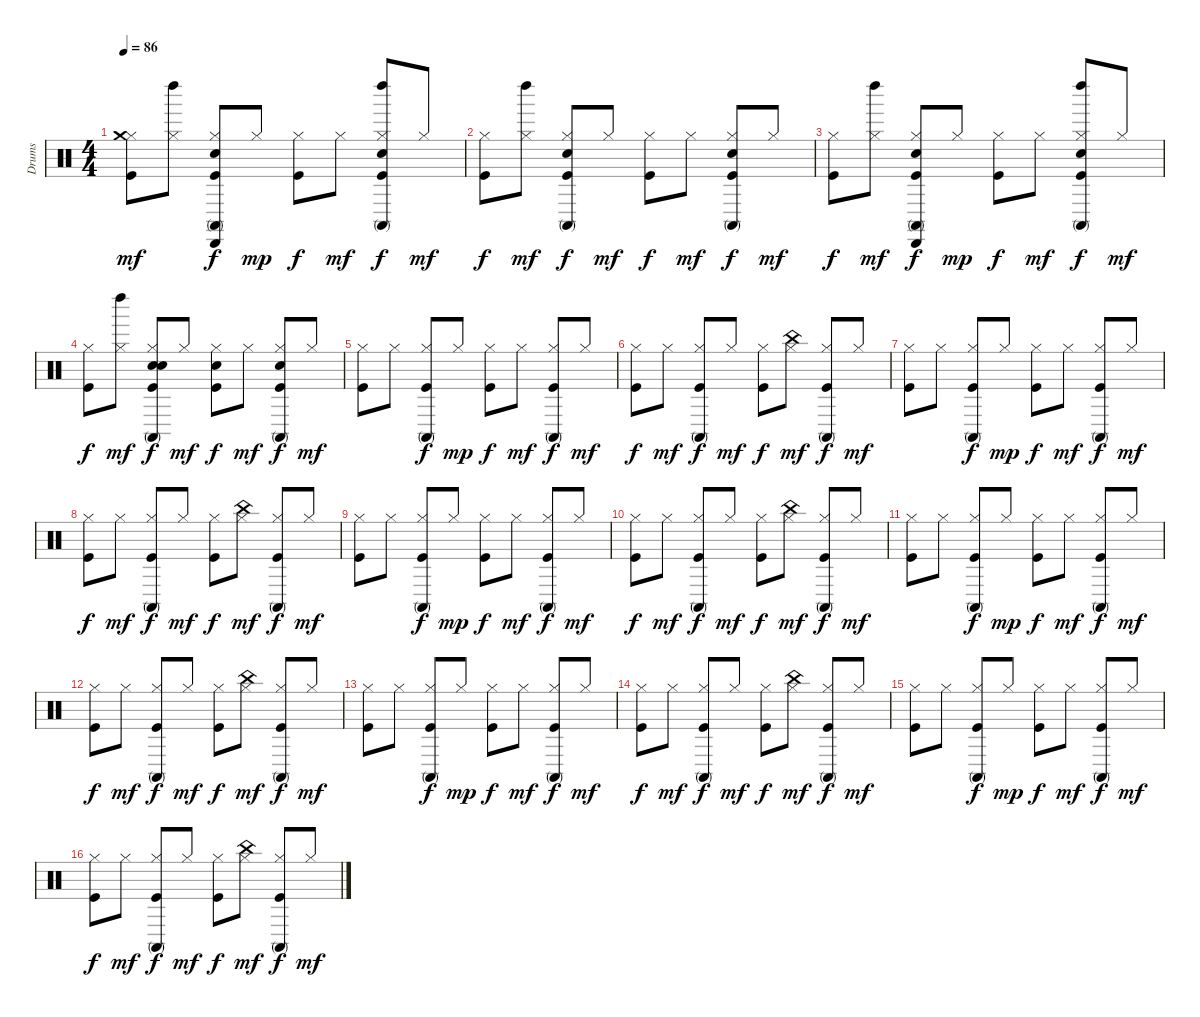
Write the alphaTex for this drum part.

\track ("Drums" "Drums") {instrument percussion}
\staff {score}
\articulation defaults
\ts (4 4)
\tempo 86
\clef neutral
\ks c
("Hi-Hat (closed)" "Crash medium (hit)" "Kick (hit)").8{dy mf} ("Hi-Hat (closed)" "Left Maraca (hit)").8 ("Cabasa (hit)" "Snare (hit) 2" "Conga high (mute)" "Hi-Hat (closed)" "Kick (hit)").8{dy f} "Hi-Hat (closed)".8{dy mp} ("Hi-Hat (closed)" "Kick (hit)").8{dy f} "Hi-Hat (closed)".8{dy mf} ("Left Maraca (hit)" "Snare (hit) 2" "Conga high (mute)" "Hi-Hat (closed)" "Kick (hit)").8{dy f} "Hi-Hat (closed)".8{dy mf} |
("Hi-Hat (closed)" "Kick (hit)").8{dy f} ("Hi-Hat (closed)" "Left Maraca (hit)").8{dy mf} ("Snare (hit) 2" "Conga high (mute)" "Hi-Hat (closed)" "Kick (hit)").8{dy f} "Hi-Hat (closed)".8{dy mf} ("Hi-Hat (closed)" "Kick (hit)").8{dy f} "Hi-Hat (closed)".8{dy mf} ("Snare (hit) 2" "Conga high (mute)" "Hi-Hat (closed)" "Kick (hit)").8{dy f} "Hi-Hat (closed)".8{dy mf} |
("Hi-Hat (closed)" "Kick (hit)").8{dy f} ("Hi-Hat (closed)" "Left Maraca (hit)").8{dy mf} ("Cabasa (hit)" "Snare (hit) 2" "Conga high (mute)" "Hi-Hat (closed)" "Kick (hit)").8{dy f} "Hi-Hat (closed)".8{dy mp} ("Hi-Hat (closed)" "Kick (hit)").8{dy f} "Hi-Hat (closed)".8{dy mf} ("Left Maraca (hit)" "Snare (hit) 2" "Conga high (mute)" "Hi-Hat (closed)" "Kick (hit)").8{dy f} "Hi-Hat (closed)".8{dy mf} |
("Hi-Hat (closed)" "Kick (hit)").8{dy f} ("Hi-Hat (closed)" "Left Maraca (hit)").8{dy mf} ("Snare (hit) 2" "Conga high (mute)" "Hi-Hat (closed)" "Kick (hit)" "Snare (hit) 2").8{dy f} "Hi-Hat (closed)".8{dy mf} ("Hi-Hat (closed)" "Kick (hit)" "Snare (hit) 2").8{dy f} "Hi-Hat (closed)".8{dy mf} ("Snare (hit) 2" "Conga high (mute)" "Hi-Hat (closed)" "Kick (hit)").8{dy f} "Hi-Hat (closed)".8{dy mf} |
("Hi-Hat (closed)" "Kick (hit)").8 "Hi-Hat (closed)".8 ("Conga high (mute)" "Hi-Hat (closed)" "Kick (hit)").8{dy f} "Hi-Hat (closed)".8{dy mp} ("Hi-Hat (closed)" "Kick (hit)").8{dy f} "Hi-Hat (closed)".8{dy mf} ("Conga high (mute)" "Hi-Hat (closed)" "Kick (hit)").8{dy f} "Hi-Hat (closed)".8{dy mf} |
("Hi-Hat (closed)" "Kick (hit)").8{dy f} "Hi-Hat (closed)".8{dy mf} ("Conga high (mute)" "Hi-Hat (closed)" "Kick (hit)").8{dy f} "Hi-Hat (closed)".8{dy mf} ("Hi-Hat (closed)" "Kick (hit)").8{dy f} ("Hi-Hat (closed)" "China (hit)").8{dy mf} ("Conga high (mute)" "Hi-Hat (closed)" "Kick (hit)").8{dy f} "Hi-Hat (closed)".8{dy mf} |
("Hi-Hat (closed)" "Kick (hit)").8 "Hi-Hat (closed)".8 ("Conga high (mute)" "Hi-Hat (closed)" "Kick (hit)").8{dy f} "Hi-Hat (closed)".8{dy mp} ("Hi-Hat (closed)" "Kick (hit)").8{dy f} "Hi-Hat (closed)".8{dy mf} ("Conga high (mute)" "Hi-Hat (closed)" "Kick (hit)").8{dy f} "Hi-Hat (closed)".8{dy mf} |
("Hi-Hat (closed)" "Kick (hit)").8{dy f} "Hi-Hat (closed)".8{dy mf} ("Conga high (mute)" "Hi-Hat (closed)" "Kick (hit)").8{dy f} "Hi-Hat (closed)".8{dy mf} ("Hi-Hat (closed)" "Kick (hit)").8{dy f} ("Hi-Hat (closed)" "China (hit)").8{dy mf} ("Conga high (mute)" "Hi-Hat (closed)" "Kick (hit)").8{dy f} "Hi-Hat (closed)".8{dy mf} |
("Hi-Hat (closed)" "Kick (hit)").8 "Hi-Hat (closed)".8 ("Conga high (mute)" "Hi-Hat (closed)" "Kick (hit)").8{dy f} "Hi-Hat (closed)".8{dy mp} ("Hi-Hat (closed)" "Kick (hit)").8{dy f} "Hi-Hat (closed)".8{dy mf} ("Conga high (mute)" "Hi-Hat (closed)" "Kick (hit)").8{dy f} "Hi-Hat (closed)".8{dy mf} |
("Hi-Hat (closed)" "Kick (hit)").8{dy f} "Hi-Hat (closed)".8{dy mf} ("Conga high (mute)" "Hi-Hat (closed)" "Kick (hit)").8{dy f} "Hi-Hat (closed)".8{dy mf} ("Hi-Hat (closed)" "Kick (hit)").8{dy f} ("Hi-Hat (closed)" "China (hit)").8{dy mf} ("Conga high (mute)" "Hi-Hat (closed)" "Kick (hit)").8{dy f} "Hi-Hat (closed)".8{dy mf} |
("Hi-Hat (closed)" "Kick (hit)").8 "Hi-Hat (closed)".8 ("Conga high (mute)" "Hi-Hat (closed)" "Kick (hit)").8{dy f} "Hi-Hat (closed)".8{dy mp} ("Hi-Hat (closed)" "Kick (hit)").8{dy f} "Hi-Hat (closed)".8{dy mf} ("Conga high (mute)" "Hi-Hat (closed)" "Kick (hit)").8{dy f} "Hi-Hat (closed)".8{dy mf} |
("Hi-Hat (closed)" "Kick (hit)").8{dy f} "Hi-Hat (closed)".8{dy mf} ("Conga high (mute)" "Hi-Hat (closed)" "Kick (hit)").8{dy f} "Hi-Hat (closed)".8{dy mf} ("Hi-Hat (closed)" "Kick (hit)").8{dy f} ("Hi-Hat (closed)" "China (hit)").8{dy mf} ("Conga high (mute)" "Hi-Hat (closed)" "Kick (hit)").8{dy f} "Hi-Hat (closed)".8{dy mf} |
("Hi-Hat (closed)" "Kick (hit)").8 "Hi-Hat (closed)".8 ("Conga high (mute)" "Hi-Hat (closed)" "Kick (hit)").8{dy f} "Hi-Hat (closed)".8{dy mp} ("Hi-Hat (closed)" "Kick (hit)").8{dy f} "Hi-Hat (closed)".8{dy mf} ("Conga high (mute)" "Hi-Hat (closed)" "Kick (hit)").8{dy f} "Hi-Hat (closed)".8{dy mf} |
("Hi-Hat (closed)" "Kick (hit)").8{dy f} "Hi-Hat (closed)".8{dy mf} ("Conga high (mute)" "Hi-Hat (closed)" "Kick (hit)").8{dy f} "Hi-Hat (closed)".8{dy mf} ("Hi-Hat (closed)" "Kick (hit)").8{dy f} ("Hi-Hat (closed)" "China (hit)").8{dy mf} ("Conga high (mute)" "Hi-Hat (closed)" "Kick (hit)").8{dy f} "Hi-Hat (closed)".8{dy mf} |
("Hi-Hat (closed)" "Kick (hit)").8 "Hi-Hat (closed)".8 ("Conga high (mute)" "Hi-Hat (closed)" "Kick (hit)").8{dy f} "Hi-Hat (closed)".8{dy mp} ("Hi-Hat (closed)" "Kick (hit)").8{dy f} "Hi-Hat (closed)".8{dy mf} ("Conga high (mute)" "Hi-Hat (closed)" "Kick (hit)").8{dy f} "Hi-Hat (closed)".8{dy mf} |
("Hi-Hat (closed)" "Kick (hit)").8{dy f} "Hi-Hat (closed)".8{dy mf} ("Conga high (mute)" "Hi-Hat (closed)" "Kick (hit)").8{dy f} "Hi-Hat (closed)".8{dy mf} ("Hi-Hat (closed)" "Kick (hit)").8{dy f} ("Hi-Hat (closed)" "China (hit)").8{dy mf} ("Conga high (mute)" "Hi-Hat (closed)" "Kick (hit)").8{dy f} "Hi-Hat (closed)".8{dy mf}
